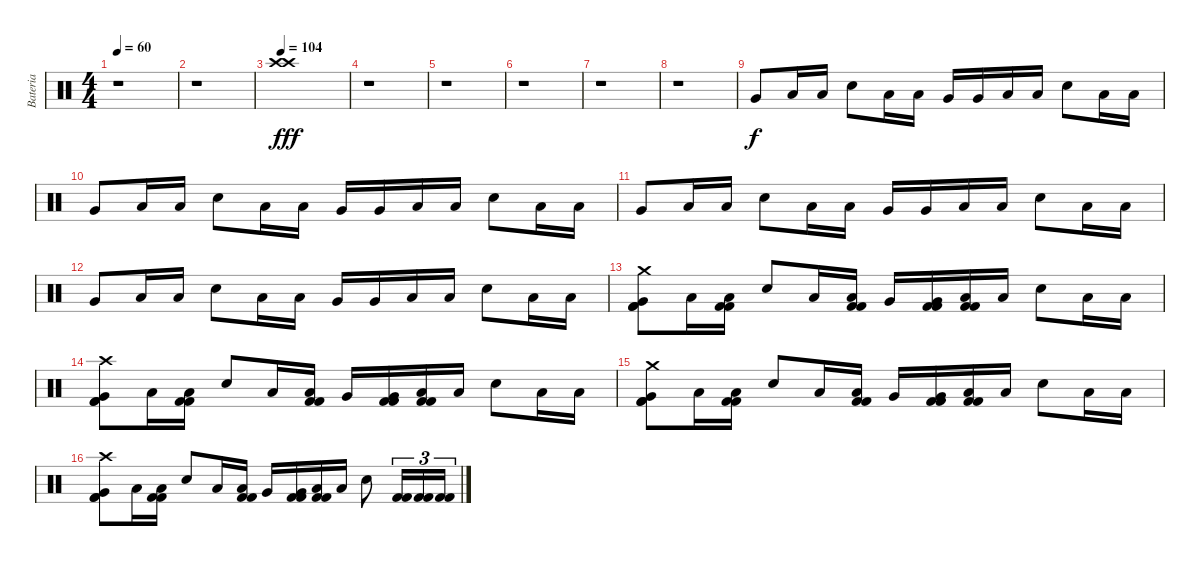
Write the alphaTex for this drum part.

\track ("Bateria" "Bateria") {instrument percussion}
\staff {score}
\articulation defaults
\ts (4 4)
\tempo 60
\clef neutral
\ks c
r.1{dy fff} |
r.1 |
\tempo 104
("Crash high (hit)" "Crash high (hit)").1 |
r.1 |
r.1 |
r.1 |
r.1 |
r.1 |
"Very Low Tom (hit)".8{dy f} "Low Floor Tom (hit)".16 "Low Floor Tom (hit)".16 "Snare (hit) 2".8 "Low Floor Tom (hit)".16 "Low Floor Tom (hit)".16 "Very Low Tom (hit)".16 "Very Low Tom (hit)".16 "Low Floor Tom (hit)".16 "Low Floor Tom (hit)".16 "Snare (hit) 2".8 "Low Floor Tom (hit)".16 "Low Floor Tom (hit)".16 |
"Very Low Tom (hit)".8 "Low Floor Tom (hit)".16 "Low Floor Tom (hit)".16 "Snare (hit) 2".8 "Low Floor Tom (hit)".16 "Low Floor Tom (hit)".16 "Very Low Tom (hit)".16 "Very Low Tom (hit)".16 "Low Floor Tom (hit)".16 "Low Floor Tom (hit)".16 "Snare (hit) 2".8 "Low Floor Tom (hit)".16 "Low Floor Tom (hit)".16 |
"Very Low Tom (hit)".8 "Low Floor Tom (hit)".16 "Low Floor Tom (hit)".16 "Snare (hit) 2".8 "Low Floor Tom (hit)".16 "Low Floor Tom (hit)".16 "Very Low Tom (hit)".16 "Very Low Tom (hit)".16 "Low Floor Tom (hit)".16 "Low Floor Tom (hit)".16 "Snare (hit) 2".8 "Low Floor Tom (hit)".16 "Low Floor Tom (hit)".16 |
"Very Low Tom (hit)".8 "Low Floor Tom (hit)".16 "Low Floor Tom (hit)".16 "Snare (hit) 2".8 "Low Floor Tom (hit)".16 "Low Floor Tom (hit)".16 "Very Low Tom (hit)".16 "Very Low Tom (hit)".16 "Low Floor Tom (hit)".16 "Low Floor Tom (hit)".16 "Snare (hit) 2".8 "Low Floor Tom (hit)".16 "Low Floor Tom (hit)".16 |
("Kick (hit) 2" "Kick (hit) 2" "Very Low Tom (hit)" "Crash medium (hit)").8 "Low Floor Tom (hit)".16 ("Kick (hit) 2" "Kick (hit) 2" "Low Floor Tom (hit)").16 "Snare (hit) 2".8 "Low Floor Tom (hit)".16 ("Kick (hit) 2" "Kick (hit) 2" "Low Floor Tom (hit)").16 "Very Low Tom (hit)".16 ("Kick (hit) 2" "Kick (hit) 2" "Very Low Tom (hit)").16 ("Kick (hit) 2" "Kick (hit) 2" "Low Floor Tom (hit)").16 "Low Floor Tom (hit)".16 "Snare (hit) 2".8 "Low Floor Tom (hit)".16 "Low Floor Tom (hit)".16 |
("Kick (hit) 2" "Kick (hit) 2" "Very Low Tom (hit)" "Crash high (hit)").8 "Low Floor Tom (hit)".16 ("Kick (hit) 2" "Kick (hit) 2" "Low Floor Tom (hit)").16 "Snare (hit) 2".8 "Low Floor Tom (hit)".16 ("Kick (hit) 2" "Kick (hit) 2" "Low Floor Tom (hit)").16 "Very Low Tom (hit)".16 ("Kick (hit) 2" "Kick (hit) 2" "Very Low Tom (hit)").16 ("Kick (hit) 2" "Kick (hit) 2" "Low Floor Tom (hit)").16 "Low Floor Tom (hit)".16 "Snare (hit) 2".8 "Low Floor Tom (hit)".16 "Low Floor Tom (hit)".16 |
("Kick (hit) 2" "Kick (hit) 2" "Very Low Tom (hit)" "Crash medium (hit)").8 "Low Floor Tom (hit)".16 ("Kick (hit) 2" "Kick (hit) 2" "Low Floor Tom (hit)").16 "Snare (hit) 2".8 "Low Floor Tom (hit)".16 ("Kick (hit) 2" "Kick (hit) 2" "Low Floor Tom (hit)").16 "Very Low Tom (hit)".16 ("Kick (hit) 2" "Kick (hit) 2" "Very Low Tom (hit)").16 ("Kick (hit) 2" "Kick (hit) 2" "Low Floor Tom (hit)").16 "Low Floor Tom (hit)".16 "Snare (hit) 2".8 "Low Floor Tom (hit)".16 "Low Floor Tom (hit)".16 |
("Kick (hit) 2" "Kick (hit) 2" "Very Low Tom (hit)" "Crash high (hit)").8 "Low Floor Tom (hit)".16 ("Kick (hit) 2" "Kick (hit) 2" "Low Floor Tom (hit)").16 "Snare (hit) 2".8 "Low Floor Tom (hit)".16 ("Kick (hit) 2" "Kick (hit) 2" "Low Floor Tom (hit)").16 "Very Low Tom (hit)".16 ("Kick (hit) 2" "Kick (hit) 2" "Very Low Tom (hit)").16 ("Kick (hit) 2" "Kick (hit) 2" "Low Floor Tom (hit)").16 "Low Floor Tom (hit)".16 "Snare (hit) 2".8 ("Kick (hit) 2" "Kick (hit) 2").16{tu (3 2)} ("Kick (hit) 2" "Kick (hit) 2").16{tu (3 2)} ("Kick (hit) 2" "Kick (hit) 2").16{tu (3 2)}
